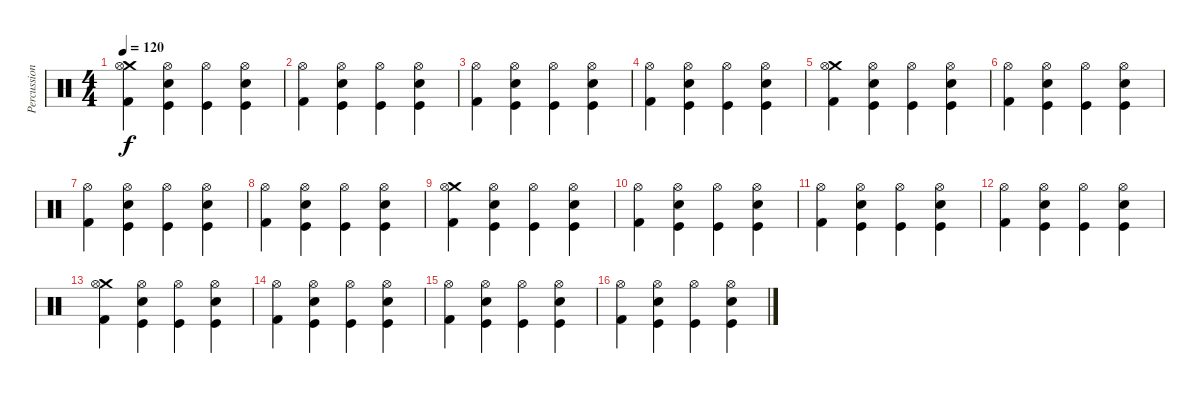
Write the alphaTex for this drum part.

\track ("Percussion" "Percussion") {instrument percussion}
\staff {score}
\articulation defaults
\ts (4 4)
\tempo 120
\clef neutral
\ks c
("Crash medium (hit)" "Kick (hit) 2" "Hi-Hat (open)").4{dy f} ("Snare (hit) 2" "Kick (hit)" "Hi-Hat (open)").4 ("Kick (hit)" "Hi-Hat (open)").4 ("Snare (hit) 2" "Kick (hit)" "Hi-Hat (open)").4 |
("Kick (hit) 2" "Hi-Hat (open)").4 ("Snare (hit) 2" "Kick (hit)" "Hi-Hat (open)").4 ("Kick (hit)" "Hi-Hat (open)").4 ("Snare (hit) 2" "Kick (hit)" "Hi-Hat (open)").4 |
("Kick (hit) 2" "Hi-Hat (open)").4 ("Snare (hit) 2" "Kick (hit)" "Hi-Hat (open)").4 ("Kick (hit)" "Hi-Hat (open)").4 ("Snare (hit) 2" "Kick (hit)" "Hi-Hat (open)").4 |
("Kick (hit) 2" "Hi-Hat (open)").4 ("Snare (hit) 2" "Kick (hit)" "Hi-Hat (open)").4 ("Kick (hit)" "Hi-Hat (open)").4 ("Snare (hit) 2" "Kick (hit)" "Hi-Hat (open)").4 |
("Crash medium (hit)" "Kick (hit) 2" "Hi-Hat (open)").4 ("Snare (hit) 2" "Kick (hit)" "Hi-Hat (open)").4 ("Kick (hit)" "Hi-Hat (open)").4 ("Snare (hit) 2" "Kick (hit)" "Hi-Hat (open)").4 |
("Kick (hit) 2" "Hi-Hat (open)").4 ("Snare (hit) 2" "Kick (hit)" "Hi-Hat (open)").4 ("Kick (hit)" "Hi-Hat (open)").4 ("Snare (hit) 2" "Kick (hit)" "Hi-Hat (open)").4 |
("Kick (hit) 2" "Hi-Hat (open)").4 ("Snare (hit) 2" "Kick (hit)" "Hi-Hat (open)").4 ("Kick (hit)" "Hi-Hat (open)").4 ("Snare (hit) 2" "Kick (hit)" "Hi-Hat (open)").4 |
("Kick (hit) 2" "Hi-Hat (open)").4 ("Snare (hit) 2" "Kick (hit)" "Hi-Hat (open)").4 ("Kick (hit)" "Hi-Hat (open)").4 ("Snare (hit) 2" "Kick (hit)" "Hi-Hat (open)").4 |
("Crash medium (hit)" "Kick (hit) 2" "Hi-Hat (open)").4 ("Snare (hit) 2" "Kick (hit)" "Hi-Hat (open)").4 ("Kick (hit)" "Hi-Hat (open)").4 ("Snare (hit) 2" "Kick (hit)" "Hi-Hat (open)").4 |
("Kick (hit) 2" "Hi-Hat (open)").4 ("Snare (hit) 2" "Kick (hit)" "Hi-Hat (open)").4 ("Kick (hit)" "Hi-Hat (open)").4 ("Snare (hit) 2" "Kick (hit)" "Hi-Hat (open)").4 |
("Kick (hit) 2" "Hi-Hat (open)").4 ("Snare (hit) 2" "Kick (hit)" "Hi-Hat (open)").4 ("Kick (hit)" "Hi-Hat (open)").4 ("Snare (hit) 2" "Kick (hit)" "Hi-Hat (open)").4 |
("Kick (hit) 2" "Hi-Hat (open)").4 ("Snare (hit) 2" "Kick (hit)" "Hi-Hat (open)").4 ("Kick (hit)" "Hi-Hat (open)").4 ("Snare (hit) 2" "Kick (hit)" "Hi-Hat (open)").4 |
("Crash medium (hit)" "Kick (hit) 2" "Hi-Hat (open)").4 ("Snare (hit) 2" "Kick (hit)" "Hi-Hat (open)").4 ("Kick (hit)" "Hi-Hat (open)").4 ("Snare (hit) 2" "Kick (hit)" "Hi-Hat (open)").4 |
("Kick (hit) 2" "Hi-Hat (open)").4 ("Snare (hit) 2" "Kick (hit)" "Hi-Hat (open)").4 ("Kick (hit)" "Hi-Hat (open)").4 ("Snare (hit) 2" "Kick (hit)" "Hi-Hat (open)").4 |
("Kick (hit) 2" "Hi-Hat (open)").4 ("Snare (hit) 2" "Kick (hit)" "Hi-Hat (open)").4 ("Kick (hit)" "Hi-Hat (open)").4 ("Snare (hit) 2" "Kick (hit)" "Hi-Hat (open)").4 |
("Kick (hit) 2" "Hi-Hat (open)").4 ("Snare (hit) 2" "Kick (hit)" "Hi-Hat (open)").4 ("Kick (hit)" "Hi-Hat (open)").4 ("Snare (hit) 2" "Kick (hit)" "Hi-Hat (open)").4
